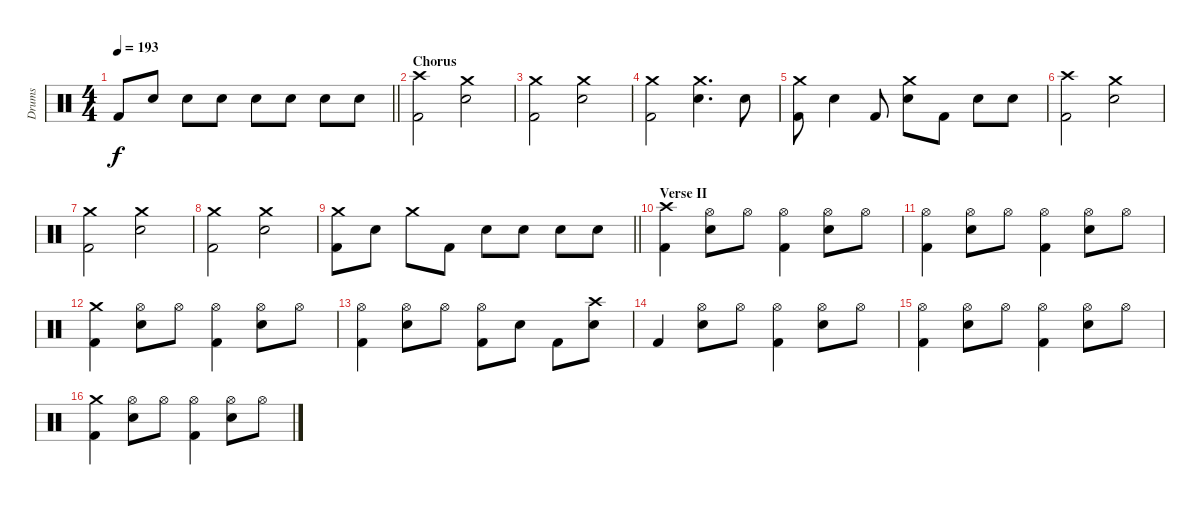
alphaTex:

\track ("Drums" "Drums") {instrument percussion}
\staff {score}
\articulation defaults
\ts (4 4)
\tempo 193
\clef neutral
\barLineRight lightlight
\ks c "Kick (hit) 2".8{dy f} "Snare (hit) 2".8 "Snare (hit) 2".8 "Snare (hit) 2".8 "Snare (hit) 2".8 "Snare (hit) 2".8 "Snare (hit) 2".8 "Snare (hit) 2".8
|
\section ("" "Chorus")
("Crash high (hit)" "Kick (hit) 2").2 ("Crash medium (hit)" "Snare (hit) 2").2 |
("Crash medium (hit)" "Kick (hit) 2").2 ("Crash medium (hit)" "Snare (hit) 2").2 |
("Crash medium (hit)" "Kick (hit) 2").2 ("Crash medium (hit)" "Snare (hit) 2").4{d} "Snare (hit) 2".8 |
("Crash medium (hit)" "Kick (hit) 2").8 "Snare (hit) 2".4 "Kick (hit) 2".8 ("Crash medium (hit)" "Snare (hit) 2").8 "Kick (hit) 2".8 "Snare (hit) 2".8 "Snare (hit) 2".8 |
("Crash high (hit)" "Kick (hit) 2").2 ("Crash medium (hit)" "Snare (hit) 2").2 |
("Crash medium (hit)" "Kick (hit) 2").2 ("Crash medium (hit)" "Snare (hit) 2").2 |
("Crash medium (hit)" "Kick (hit) 2").2 ("Crash medium (hit)" "Snare (hit) 2").2 |
\barLineRight lightlight
("Crash medium (hit)" "Kick (hit) 2").8 "Snare (hit) 2".8 "Crash medium (hit)".8 "Kick (hit) 2".8 "Snare (hit) 2".8 "Snare (hit) 2".8 "Snare (hit) 2".8 "Snare (hit) 2".8 |
\section ("" "Verse II")
("Crash high (hit)" "Kick (hit) 2").4 ("Hi-Hat (open)" "Snare (hit) 2").8 "Hi-Hat (open)".8 ("Hi-Hat (open)" "Kick (hit) 2").4 ("Hi-Hat (open)" "Snare (hit) 2").8 "Hi-Hat (open)".8 |
("Hi-Hat (open)" "Kick (hit) 2").4 ("Hi-Hat (open)" "Snare (hit) 2").8 "Hi-Hat (open)".8 ("Hi-Hat (open)" "Kick (hit) 2").4 ("Hi-Hat (open)" "Snare (hit) 2").8 "Hi-Hat (open)".8 |
("Crash medium (hit)" "Kick (hit) 2").4 ("Hi-Hat (open)" "Snare (hit) 2").8 "Hi-Hat (open)".8 ("Hi-Hat (open)" "Kick (hit) 2").4 ("Hi-Hat (open)" "Snare (hit) 2").8 "Hi-Hat (open)".8 |
("Hi-Hat (open)" "Kick (hit) 2").4 ("Hi-Hat (open)" "Snare (hit) 2").8 "Hi-Hat (open)".8 ("Hi-Hat (open)" "Kick (hit) 2").8 "Snare (hit) 2".8 "Kick (hit) 2".8 ("Crash high (hit)" "Snare (hit) 2").8 |
"Kick (hit) 2".4 ("Hi-Hat (open)" "Snare (hit) 2").8 "Hi-Hat (open)".8 ("Hi-Hat (open)" "Kick (hit) 2").4 ("Hi-Hat (open)" "Snare (hit) 2").8 "Hi-Hat (open)".8 |
("Hi-Hat (open)" "Kick (hit) 2").4 ("Hi-Hat (open)" "Snare (hit) 2").8 "Hi-Hat (open)".8 ("Hi-Hat (open)" "Kick (hit) 2").4 ("Hi-Hat (open)" "Snare (hit) 2").8 "Hi-Hat (open)".8 |
("Crash medium (hit)" "Kick (hit) 2").4 ("Hi-Hat (open)" "Snare (hit) 2").8 "Hi-Hat (open)".8 ("Hi-Hat (open)" "Kick (hit) 2").4 ("Hi-Hat (open)" "Snare (hit) 2").8 "Hi-Hat (open)".8
